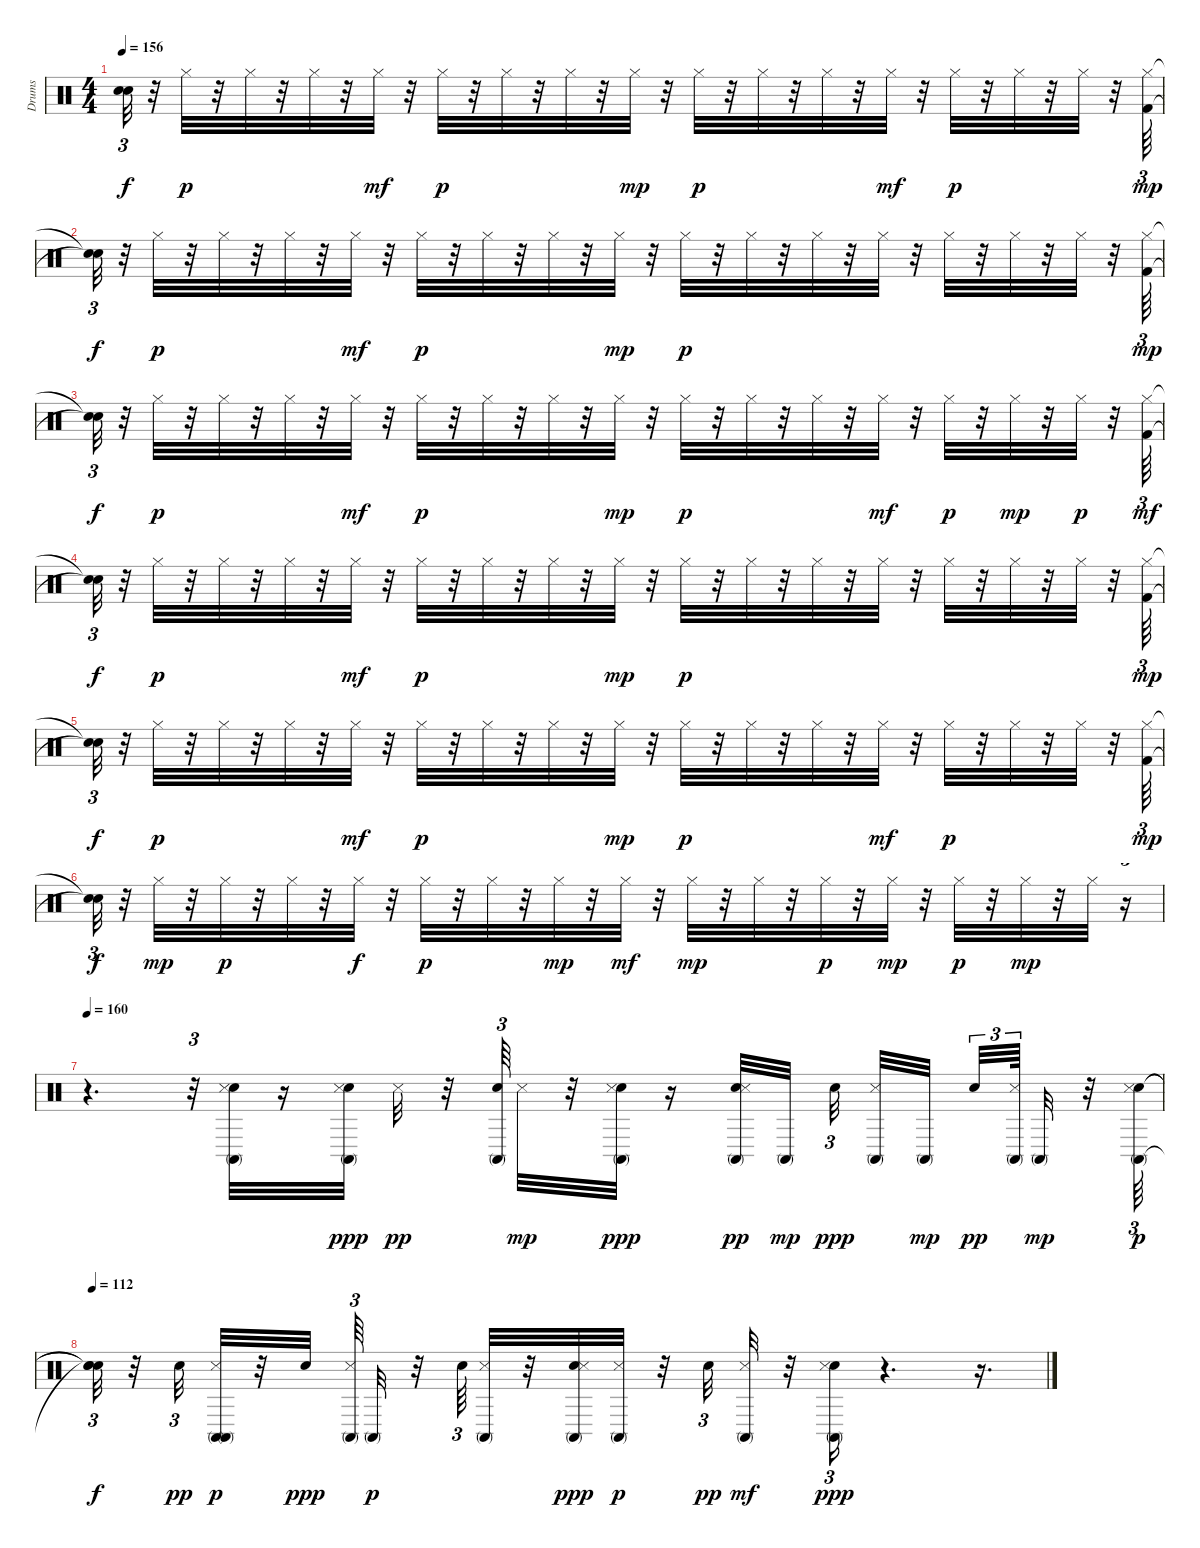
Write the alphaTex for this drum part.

\track ("Drums" "Drums") {instrument percussion}
\staff {score}
\articulation defaults
\ts (4 4)
\tempo 156
\clef neutral
\ks c
("Snare (hit)"{t} "Snare (hit)"{t}).32{tu (3 2) dy f} r.32 "Hi-Hat (closed)".32{dy p} r.32 "Hi-Hat (closed)".32 r.32 "Hi-Hat (closed)".32 r.32 "Hi-Hat (closed)".32{dy mf} r.32 "Hi-Hat (closed)".32{dy p} r.32 "Hi-Hat (closed)".32 r.32 "Hi-Hat (closed)".32 r.32 "Hi-Hat (closed)".32{dy mp} r.32 "Hi-Hat (closed)".32{dy p} r.32 "Hi-Hat (closed)".32 r.32 "Hi-Hat (closed)".32 r.32 "Hi-Hat (closed)".32{dy mf} r.32 "Hi-Hat (closed)".32{dy p} r.32 "Hi-Hat (closed)".32 r.32 "Hi-Hat (closed)".32 r.32 ("Kick (hit) 2" "Hi-Hat (closed)").64{tu (3 2) dy mp} |
("Snare (hit)"{t} "Snare (hit)"{t}).32{tu (3 2) dy f} r.32 "Hi-Hat (closed)".32{dy p} r.32 "Hi-Hat (closed)".32 r.32 "Hi-Hat (closed)".32 r.32 "Hi-Hat (closed)".32{dy mf} r.32 "Hi-Hat (closed)".32{dy p} r.32 "Hi-Hat (closed)".32 r.32 "Hi-Hat (closed)".32 r.32 "Hi-Hat (closed)".32{dy mp} r.32 "Hi-Hat (closed)".32{dy p} r.32 "Hi-Hat (closed)".32 r.32 "Hi-Hat (closed)".32 r.32 "Hi-Hat (closed)".32 r.32 "Hi-Hat (closed)".32 r.32 "Hi-Hat (closed)".32 r.32 "Hi-Hat (closed)".32 r.32 ("Kick (hit) 2" "Hi-Hat (closed)").64{tu (3 2) dy mp} |
("Snare (hit)"{t} "Snare (hit)"{t}).32{tu (3 2) dy f} r.32 "Hi-Hat (closed)".32{dy p} r.32 "Hi-Hat (closed)".32 r.32 "Hi-Hat (closed)".32 r.32 "Hi-Hat (closed)".32{dy mf} r.32 "Hi-Hat (closed)".32{dy p} r.32 "Hi-Hat (closed)".32 r.32 "Hi-Hat (closed)".32 r.32 "Hi-Hat (closed)".32{dy mp} r.32 "Hi-Hat (closed)".32{dy p} r.32 "Hi-Hat (closed)".32 r.32 "Hi-Hat (closed)".32 r.32 "Hi-Hat (closed)".32{dy mf} r.32 "Hi-Hat (closed)".32{dy p} r.32 "Hi-Hat (closed)".32{dy mp} r.32 "Hi-Hat (closed)".32{dy p} r.32 ("Kick (hit) 2" "Hi-Hat (closed)").64{tu (3 2) dy mf} |
("Snare (hit)"{t} "Snare (hit)"{t}).32{tu (3 2) dy f} r.32 "Hi-Hat (closed)".32{dy p} r.32 "Hi-Hat (closed)".32 r.32 "Hi-Hat (closed)".32 r.32 "Hi-Hat (closed)".32{dy mf} r.32 "Hi-Hat (closed)".32{dy p} r.32 "Hi-Hat (closed)".32 r.32 "Hi-Hat (closed)".32 r.32 "Hi-Hat (closed)".32{dy mp} r.32 "Hi-Hat (closed)".32{dy p} r.32 "Hi-Hat (closed)".32 r.32 "Hi-Hat (closed)".32 r.32 "Hi-Hat (closed)".32 r.32 "Hi-Hat (closed)".32 r.32 "Hi-Hat (closed)".32 r.32 "Hi-Hat (closed)".32 r.32 ("Kick (hit) 2" "Hi-Hat (closed)").64{tu (3 2) dy mp} |
("Snare (hit)"{t} "Snare (hit)"{t}).32{tu (3 2) dy f} r.32 "Hi-Hat (closed)".32{dy p} r.32 "Hi-Hat (closed)".32 r.32 "Hi-Hat (closed)".32 r.32 "Hi-Hat (closed)".32{dy mf} r.32 "Hi-Hat (closed)".32{dy p} r.32 "Hi-Hat (closed)".32 r.32 "Hi-Hat (closed)".32 r.32 "Hi-Hat (closed)".32{dy mp} r.32 "Hi-Hat (closed)".32{dy p} r.32 "Hi-Hat (closed)".32 r.32 "Hi-Hat (closed)".32 r.32 "Hi-Hat (closed)".32{dy mf} r.32 "Hi-Hat (closed)".32{dy p} r.32 "Hi-Hat (closed)".32 r.32 "Hi-Hat (closed)".32 r.32 ("Kick (hit) 2" "Hi-Hat (closed)").64{tu (3 2) dy mp} |
("Snare (hit)"{t} "Snare (hit)"{t}).32{tu (3 2) dy f} r.32 "Hi-Hat (closed)".32{dy mp} r.32 "Hi-Hat (closed)".32{dy p} r.32 "Hi-Hat (closed)".32 r.32 "Hi-Hat (closed)".32{dy f} r.32 "Hi-Hat (closed)".32{dy p} r.32 "Hi-Hat (closed)".32 r.32 "Hi-Hat (closed)".32{dy mp} r.32 "Hi-Hat (closed)".32{dy mf} r.32 "Hi-Hat (closed)".32{dy mp} r.32 "Hi-Hat (closed)".32 r.32 "Hi-Hat (closed)".32{dy p} r.32 "Hi-Hat (closed)".32{dy mp} r.32 "Hi-Hat (closed)".32{dy p} r.32 "Hi-Hat (closed)".32{dy mp} r.32 "Hi-Hat (closed)".32 r.16{tu (3 2)} |
\tempo 160
r.4{d} r.32{tu (3 2)} ("Hand Clap (hit)" "Conga high (mute)" "Snare (side stick) 3").32 r.16 ("Hand Clap (hit)" "Conga high (mute)" "Snare (side stick) 3").32{dy ppp} "Snare (side stick) 3".32{dy pp} r.32 ("Conga high (mute)" "Hand Clap (hit)").64{tu (3 2)} "Snare (side stick) 3".32{dy mp} r.32 ("Hand Clap (hit)" "Snare (side stick) 3" "Conga high (mute)").32{dy ppp} r.16 ("Hand Clap (hit)" "Conga high (mute)" "Snare (side stick) 3").32{dy pp} "Conga high (mute)".32{dy mp beam splitsecondary} "Hand Clap (hit)".32{tu (3 2) dy ppp beam splitsecondary} ("Snare (side stick) 3" "Conga high (mute)").32 "Conga high (mute)".32{dy mp beam splitsecondary} "Hand Clap (hit)".32{tu (3 2) dy pp} ("Snare (side stick) 3" "Conga high (mute)").64{tu (3 2) beam splitsecondary} "Conga high (mute)".32{dy mp} r.32 ("Hand Clap (hit)" "Conga high (mute)" "Snare (side stick) 3").64{tu (3 2) dy p} |
\tempo 112
("Snare (hit)"{t} "Snare (hit)"{t} "Snare (hit)"{t}).32{tu (3 2) dy f} r.32 "Hand Clap (hit)".32{tu (3 2) dy pp} ("Conga high (mute)" "Conga high (mute)" "Snare (side stick) 3").32{dy p} r.32 "Hand Clap (hit)".32{dy ppp beam splitsecondary} ("Conga high (mute)" "Snare (side stick) 3").64{tu (3 2)} "Conga high (mute)".32{dy p} r.32 "Hand Clap (hit)".64{tu (3 2)} ("Conga high (mute)" "Snare (side stick) 3").32 r.32 ("Hand Clap (hit)" "Snare (side stick) 3" "Conga high (mute)").32{dy ppp} ("Snare (side stick) 3" "Conga high (mute)").32{dy p} r.32 "Hand Clap (hit)".32{tu (3 2) dy pp} ("Conga high (mute)" "Snare (side stick) 3").32{dy mf} r.32 ("Hand Clap (hit)" "Conga high (mute)" "Snare (side stick) 3").16{tu (3 2) dy ppp} r.4{d} r.16{d}
